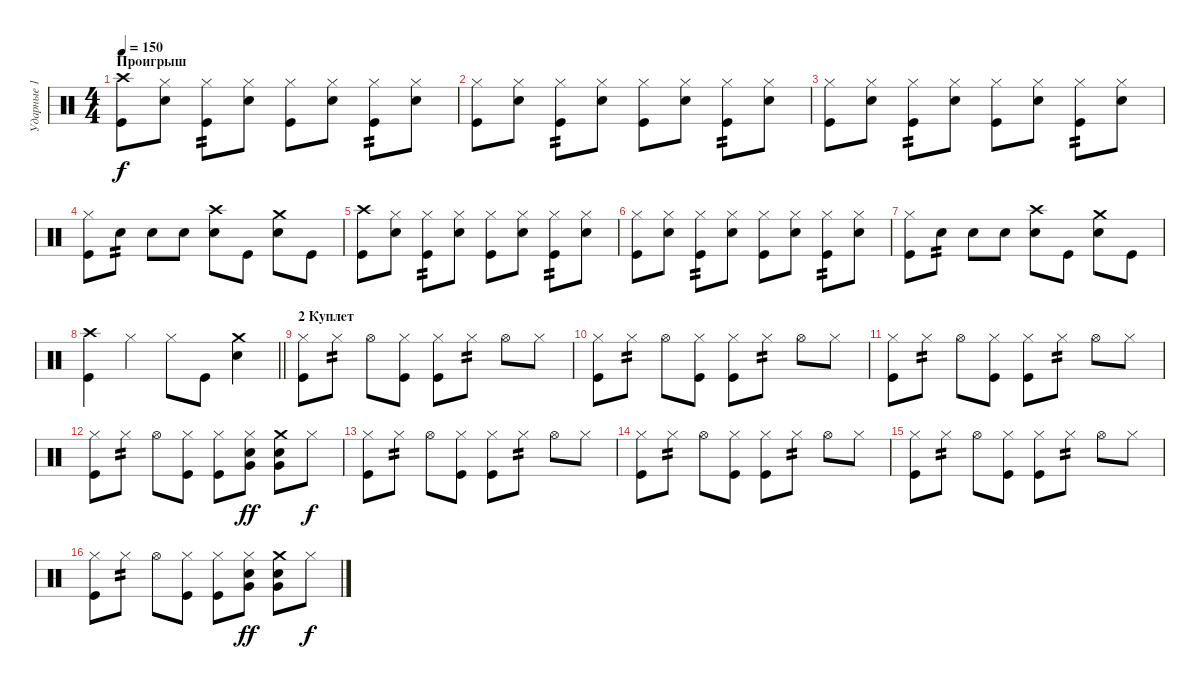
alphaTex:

\track ("Ударные 1" "Ударные 1") {instrument percussion}
\staff {score}
\articulation defaults
\ts (4 4)
\section ("" "Проигрыш")
\tempo 150
\clef neutral
\ks c
("Crash high (hit)" "Kick (hit)").8{dy f} ("Hi-Hat (closed)" "Electric Snare (hit)").8 ("Hi-Hat (closed)" "Kick (hit)").8{tp 2} ("Hi-Hat (closed)" "Electric Snare (hit)").8 ("Hi-Hat (closed)" "Kick (hit)").8 ("Hi-Hat (closed)" "Electric Snare (hit)").8 ("Hi-Hat (closed)" "Kick (hit)").8{tp 2} ("Hi-Hat (closed)" "Electric Snare (hit)").8 |
("Hi-Hat (closed)" "Kick (hit)").8 ("Hi-Hat (closed)" "Electric Snare (hit)").8 ("Hi-Hat (closed)" "Kick (hit)").8{tp 2} ("Hi-Hat (closed)" "Electric Snare (hit)").8 ("Hi-Hat (closed)" "Kick (hit)").8 ("Hi-Hat (closed)" "Electric Snare (hit)").8 ("Hi-Hat (closed)" "Kick (hit)").8{tp 2} ("Hi-Hat (closed)" "Electric Snare (hit)").8 |
("Hi-Hat (closed)" "Kick (hit)").8 ("Hi-Hat (closed)" "Electric Snare (hit)").8 ("Hi-Hat (closed)" "Kick (hit)").8{tp 2} ("Hi-Hat (closed)" "Electric Snare (hit)").8 ("Hi-Hat (closed)" "Kick (hit)").8 ("Hi-Hat (closed)" "Electric Snare (hit)").8 ("Hi-Hat (closed)" "Kick (hit)").8{tp 2} ("Hi-Hat (closed)" "Electric Snare (hit)").8 |
("Hi-Hat (closed)" "Kick (hit)").8 "Electric Snare (hit)".8{tp 2} "Electric Snare (hit)".8 "Electric Snare (hit)".8 ("Crash high (hit)" "Electric Snare (hit)").8 "Kick (hit)".8 ("Crash medium (hit)" "Electric Snare (hit)").8 "Kick (hit)".8 |
("Crash high (hit)" "Kick (hit)").8 ("Hi-Hat (closed)" "Electric Snare (hit)").8 ("Hi-Hat (closed)" "Kick (hit)").8{tp 2} ("Hi-Hat (closed)" "Electric Snare (hit)").8 ("Hi-Hat (closed)" "Kick (hit)").8 ("Hi-Hat (closed)" "Electric Snare (hit)").8 ("Hi-Hat (closed)" "Kick (hit)").8{tp 2} ("Hi-Hat (closed)" "Electric Snare (hit)").8 |
("Hi-Hat (closed)" "Kick (hit)").8 ("Hi-Hat (closed)" "Electric Snare (hit)").8 ("Hi-Hat (closed)" "Kick (hit)").8{tp 2} ("Hi-Hat (closed)" "Electric Snare (hit)").8 ("Hi-Hat (closed)" "Kick (hit)").8 ("Hi-Hat (closed)" "Electric Snare (hit)").8 ("Hi-Hat (closed)" "Kick (hit)").8{tp 2} ("Hi-Hat (closed)" "Electric Snare (hit)").8 |
("Hi-Hat (closed)" "Kick (hit)").8 "Electric Snare (hit)".8{tp 2} "Electric Snare (hit)".8 "Electric Snare (hit)".8 ("Crash high (hit)" "Electric Snare (hit)").8 "Kick (hit)".8 ("Crash medium (hit)" "Electric Snare (hit)").8 "Kick (hit)".8 |
\barLineRight lightlight
("Crash high (hit)" "Kick (hit)").4 "Hi-Hat (closed)".4 "Hi-Hat (closed)".8 "Kick (hit)".8 ("Crash medium (hit)" "Electric Snare (hit)").4 |
\section ("" "2 Куплет")
("Hi-Hat (closed)" "Kick (hit)").8 "Hi-Hat (closed)".8{tp 2} "Hi-Hat (open)".8 ("Hi-Hat (closed)" "Kick (hit)").8 ("Hi-Hat (closed)" "Kick (hit)").8 "Hi-Hat (closed)".8{tp 2} "Hi-Hat (open)".8 "Hi-Hat (closed)".8 |
("Hi-Hat (closed)" "Kick (hit)").8 "Hi-Hat (closed)".8{tp 2} "Hi-Hat (open)".8 ("Hi-Hat (closed)" "Kick (hit)").8 ("Hi-Hat (closed)" "Kick (hit)").8 "Hi-Hat (closed)".8{tp 2} "Hi-Hat (open)".8 "Hi-Hat (closed)".8 |
("Hi-Hat (closed)" "Kick (hit)").8 "Hi-Hat (closed)".8{tp 2} "Hi-Hat (open)".8 ("Hi-Hat (closed)" "Kick (hit)").8 ("Hi-Hat (closed)" "Kick (hit)").8 "Hi-Hat (closed)".8{tp 2} "Hi-Hat (open)".8 "Hi-Hat (closed)".8 |
("Hi-Hat (closed)" "Kick (hit)").8 "Hi-Hat (closed)".8{tp 2} "Hi-Hat (open)".8 ("Hi-Hat (closed)" "Kick (hit)").8 ("Hi-Hat (closed)" "Kick (hit)").8 ("Hi-Hat (closed)" "Snare (hit) 2" "Very Low Tom (hit)").8{dy ff} ("Crash medium (hit)" "Snare (hit) 2" "Very Low Tom (hit)").8 "Hi-Hat (closed)".8{dy f} |
("Hi-Hat (closed)" "Kick (hit)").8 "Hi-Hat (closed)".8{tp 2} "Hi-Hat (open)".8 ("Hi-Hat (closed)" "Kick (hit)").8 ("Hi-Hat (closed)" "Kick (hit)").8 "Hi-Hat (closed)".8{tp 2} "Hi-Hat (open)".8 "Hi-Hat (closed)".8 |
("Hi-Hat (closed)" "Kick (hit)").8 "Hi-Hat (closed)".8{tp 2} "Hi-Hat (open)".8 ("Hi-Hat (closed)" "Kick (hit)").8 ("Hi-Hat (closed)" "Kick (hit)").8 "Hi-Hat (closed)".8{tp 2} "Hi-Hat (open)".8 "Hi-Hat (closed)".8 |
("Hi-Hat (closed)" "Kick (hit)").8 "Hi-Hat (closed)".8{tp 2} "Hi-Hat (open)".8 ("Hi-Hat (closed)" "Kick (hit)").8 ("Hi-Hat (closed)" "Kick (hit)").8 "Hi-Hat (closed)".8{tp 2} "Hi-Hat (open)".8 "Hi-Hat (closed)".8 |
("Hi-Hat (closed)" "Kick (hit)").8 "Hi-Hat (closed)".8{tp 2} "Hi-Hat (open)".8 ("Hi-Hat (closed)" "Kick (hit)").8 ("Hi-Hat (closed)" "Kick (hit)").8 ("Hi-Hat (closed)" "Very Low Tom (hit)" "Electric Snare (hit)").8{dy ff} ("Crash medium (hit)" "Very Low Tom (hit)" "Electric Snare (hit)").8 "Hi-Hat (closed)".8{dy f}
